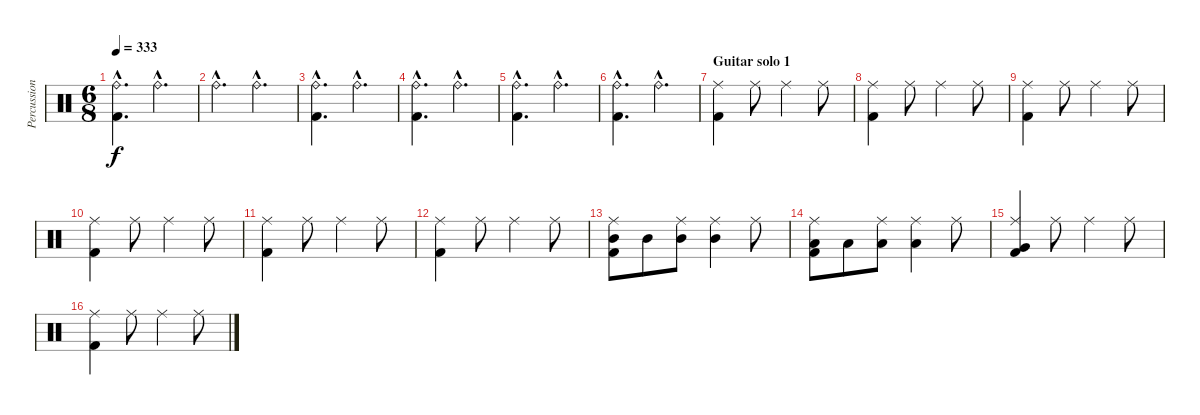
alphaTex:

\track ("Percussion" "Percussion") {instrument percussion}
\staff {score}
\articulation defaults
\ts (6 8)
\tempo 333
\clef neutral
\ks c
("Ride (bell)"{hac} "Kick (hit) 2"{hac}).4{d dy f} "Ride (bell)"{hac}.4{d} |
"Ride (bell)"{hac}.4{d} "Ride (bell)"{hac}.4{d} |
("Ride (bell)"{hac} "Kick (hit) 2"{hac}).4{d} "Ride (bell)"{hac}.4{d} |
("Ride (bell)"{hac} "Kick (hit) 2"{hac}).4{d} "Ride (bell)"{hac}.4{d} |
("Ride (bell)"{hac} "Kick (hit) 2"{hac}).4{d} "Ride (bell)"{hac}.4{d} |
("Ride (bell)"{hac} "Kick (hit) 2"{hac}).4{d} "Ride (bell)"{hac}.4{d} |
\section ("" "Guitar solo 1")
("Ride (middle)" "Kick (hit) 2").4 "Ride (middle)".8 "Ride (middle)".4 "Ride (middle)".8 |
("Ride (middle)" "Kick (hit) 2").4 "Ride (middle)".8 "Ride (middle)".4 "Ride (middle)".8 |
("Ride (middle)" "Kick (hit) 2").4 "Ride (middle)".8 "Ride (middle)".4 "Ride (middle)".8 |
("Ride (middle)" "Kick (hit) 2").4 "Ride (middle)".8 "Ride (middle)".4 "Ride (middle)".8 |
("Ride (middle)" "Kick (hit) 2").4 "Ride (middle)".8 "Ride (middle)".4 "Ride (middle)".8 |
("Ride (middle)" "Kick (hit) 2").4 "Ride (middle)".8 "Ride (middle)".4 "Ride (middle)".8 |
("Ride (middle)" "Mid Tom (hit)" "Kick (hit) 2").8 "Mid Tom (hit)".8 ("Ride (middle)" "Mid Tom (hit)").8 ("Ride (middle)" "Mid Tom (hit)").4 "Ride (middle)".8 |
("Ride (middle)" "Low Tom (hit)" "Kick (hit) 2").8 "Low Tom (hit)".8 ("Ride (middle)" "Low Tom (hit)").8 ("Ride (middle)" "Low Tom (hit)").4 "Ride (middle)".8 |
("Ride (middle)" "Very Low Tom (hit)" "Kick (hit) 2").4 "Ride (middle)".8 "Ride (middle)".4 "Ride (middle)".8 |
("Ride (middle)" "Kick (hit) 2").4 "Ride (middle)".8 "Ride (middle)".4 "Ride (middle)".8
